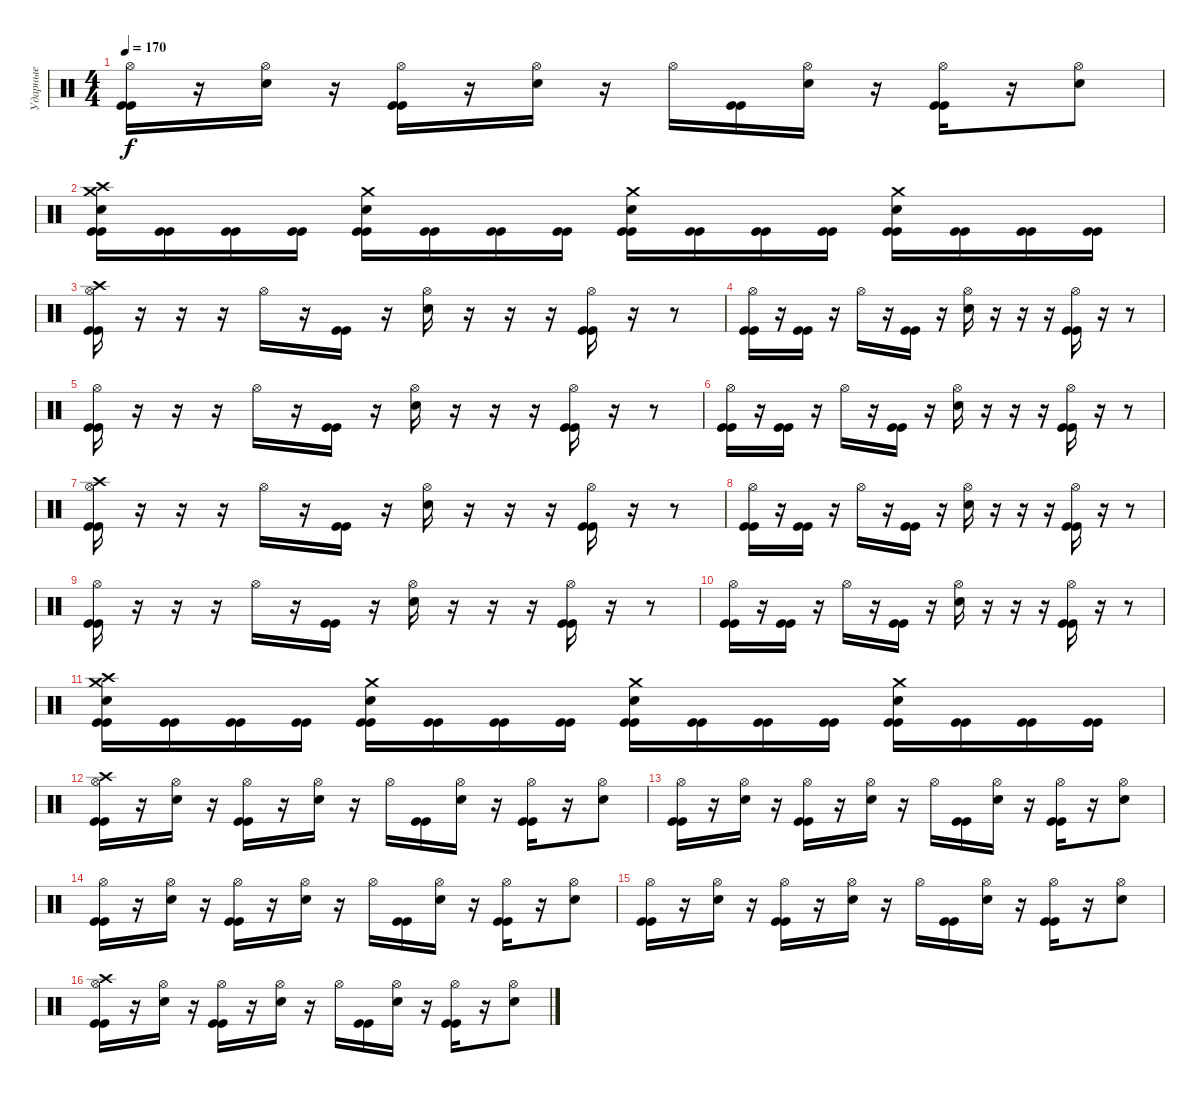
\track ("Ударные" "Ударные") {instrument percussion}
\staff {score}
\articulation defaults
\ts (4 4)
\tempo 170
\clef neutral
\ks c
("Hi-Hat (open)" "Kick (hit)" "Kick (hit)").16{dy f} r.16 ("Hi-Hat (open)" "Electric Snare (hit)").16 r.16 ("Hi-Hat (open)" "Kick (hit)" "Kick (hit)").16 r.16 ("Hi-Hat (open)" "Electric Snare (hit)").16 r.16 "Hi-Hat (open)".16 ("Kick (hit)" "Kick (hit)").16 ("Hi-Hat (open)" "Electric Snare (hit)").16 r.16 ("Hi-Hat (open)" "Kick (hit)" "Kick (hit)").16 r.16 ("Hi-Hat (open)" "Electric Snare (hit)").8 |
("Crash high (hit)" "Crash medium (hit)" "Electric Snare (hit)" "Kick (hit)" "Kick (hit)").16 ("Kick (hit)" "Kick (hit)").16 ("Kick (hit)" "Kick (hit)").16 ("Kick (hit)" "Kick (hit)").16 ("Crash medium (hit)" "Electric Snare (hit)" "Kick (hit)" "Kick (hit)").16 ("Kick (hit)" "Kick (hit)").16 ("Kick (hit)" "Kick (hit)").16 ("Kick (hit)" "Kick (hit)").16 ("Crash medium (hit)" "Electric Snare (hit)" "Kick (hit)" "Kick (hit)").16 ("Kick (hit)" "Kick (hit)").16 ("Kick (hit)" "Kick (hit)").16 ("Kick (hit)" "Kick (hit)").16 ("Crash medium (hit)" "Electric Snare (hit)" "Kick (hit)" "Kick (hit)").16 ("Kick (hit)" "Kick (hit)").16 ("Kick (hit)" "Kick (hit)").16 ("Kick (hit)" "Kick (hit)").16 |
("Crash high (hit)" "Hi-Hat (open)" "Kick (hit)" "Kick (hit)").16 r.16 r.16 r.16 "Hi-Hat (open)".16 r.16 ("Kick (hit)" "Kick (hit)").16 r.16 ("Hi-Hat (open)" "Electric Snare (hit)").16 r.16 r.16 r.16 ("Hi-Hat (open)" "Kick (hit)" "Kick (hit)").16 r.16 r.8 |
("Hi-Hat (open)" "Kick (hit)" "Kick (hit)").16 r.16 ("Kick (hit)" "Kick (hit)").16 r.16 "Hi-Hat (open)".16 r.16 ("Kick (hit)" "Kick (hit)").16 r.16 ("Hi-Hat (open)" "Electric Snare (hit)").16 r.16 r.16 r.16 ("Hi-Hat (open)" "Kick (hit)" "Kick (hit)").16 r.16 r.8 |
("Hi-Hat (open)" "Kick (hit)" "Kick (hit)").16 r.16 r.16 r.16 "Hi-Hat (open)".16 r.16 ("Kick (hit)" "Kick (hit)").16 r.16 ("Hi-Hat (open)" "Electric Snare (hit)").16 r.16 r.16 r.16 ("Hi-Hat (open)" "Kick (hit)" "Kick (hit)").16 r.16 r.8 |
("Hi-Hat (open)" "Kick (hit)" "Kick (hit)").16 r.16 ("Kick (hit)" "Kick (hit)").16 r.16 "Hi-Hat (open)".16 r.16 ("Kick (hit)" "Kick (hit)").16 r.16 ("Hi-Hat (open)" "Electric Snare (hit)").16 r.16 r.16 r.16 ("Hi-Hat (open)" "Kick (hit)" "Kick (hit)").16 r.16 r.8 |
("Crash high (hit)" "Hi-Hat (open)" "Kick (hit)" "Kick (hit)").16 r.16 r.16 r.16 "Hi-Hat (open)".16 r.16 ("Kick (hit)" "Kick (hit)").16 r.16 ("Hi-Hat (open)" "Electric Snare (hit)").16 r.16 r.16 r.16 ("Hi-Hat (open)" "Kick (hit)" "Kick (hit)").16 r.16 r.8 |
("Hi-Hat (open)" "Kick (hit)" "Kick (hit)").16 r.16 ("Kick (hit)" "Kick (hit)").16 r.16 "Hi-Hat (open)".16 r.16 ("Kick (hit)" "Kick (hit)").16 r.16 ("Hi-Hat (open)" "Electric Snare (hit)").16 r.16 r.16 r.16 ("Hi-Hat (open)" "Kick (hit)" "Kick (hit)").16 r.16 r.8 |
("Hi-Hat (open)" "Kick (hit)" "Kick (hit)").16 r.16 r.16 r.16 "Hi-Hat (open)".16 r.16 ("Kick (hit)" "Kick (hit)").16 r.16 ("Hi-Hat (open)" "Electric Snare (hit)").16 r.16 r.16 r.16 ("Hi-Hat (open)" "Kick (hit)" "Kick (hit)").16 r.16 r.8 |
("Hi-Hat (open)" "Kick (hit)" "Kick (hit)").16 r.16 ("Kick (hit)" "Kick (hit)").16 r.16 "Hi-Hat (open)".16 r.16 ("Kick (hit)" "Kick (hit)").16 r.16 ("Hi-Hat (open)" "Electric Snare (hit)").16 r.16 r.16 r.16 ("Hi-Hat (open)" "Kick (hit)" "Kick (hit)").16 r.16 r.8 |
("Crash high (hit)" "Crash medium (hit)" "Electric Snare (hit)" "Kick (hit)" "Kick (hit)").16 ("Kick (hit)" "Kick (hit)").16 ("Kick (hit)" "Kick (hit)").16 ("Kick (hit)" "Kick (hit)").16 ("Crash medium (hit)" "Electric Snare (hit)" "Kick (hit)" "Kick (hit)").16 ("Kick (hit)" "Kick (hit)").16 ("Kick (hit)" "Kick (hit)").16 ("Kick (hit)" "Kick (hit)").16 ("Crash medium (hit)" "Electric Snare (hit)" "Kick (hit)" "Kick (hit)").16 ("Kick (hit)" "Kick (hit)").16 ("Kick (hit)" "Kick (hit)").16 ("Kick (hit)" "Kick (hit)").16 ("Crash medium (hit)" "Electric Snare (hit)" "Kick (hit)" "Kick (hit)").16 ("Kick (hit)" "Kick (hit)").16 ("Kick (hit)" "Kick (hit)").16 ("Kick (hit)" "Kick (hit)").16 |
("Crash high (hit)" "Hi-Hat (open)" "Kick (hit)" "Kick (hit)").16 r.16 ("Hi-Hat (open)" "Electric Snare (hit)").16 r.16 ("Hi-Hat (open)" "Kick (hit)" "Kick (hit)").16 r.16 ("Hi-Hat (open)" "Electric Snare (hit)").16 r.16 "Hi-Hat (open)".16 ("Kick (hit)" "Kick (hit)").16 ("Hi-Hat (open)" "Electric Snare (hit)").16 r.16 ("Hi-Hat (open)" "Kick (hit)" "Kick (hit)").16 r.16 ("Hi-Hat (open)" "Electric Snare (hit)").8 |
("Hi-Hat (open)" "Kick (hit)" "Kick (hit)").16 r.16 ("Hi-Hat (open)" "Electric Snare (hit)").16 r.16 ("Hi-Hat (open)" "Kick (hit)" "Kick (hit)").16 r.16 ("Hi-Hat (open)" "Electric Snare (hit)").16 r.16 "Hi-Hat (open)".16 ("Kick (hit)" "Kick (hit)").16 ("Hi-Hat (open)" "Electric Snare (hit)").16 r.16 ("Hi-Hat (open)" "Kick (hit)" "Kick (hit)").16 r.16 ("Hi-Hat (open)" "Electric Snare (hit)").8 |
("Hi-Hat (open)" "Kick (hit)" "Kick (hit)").16 r.16 ("Hi-Hat (open)" "Electric Snare (hit)").16 r.16 ("Hi-Hat (open)" "Kick (hit)" "Kick (hit)").16 r.16 ("Hi-Hat (open)" "Electric Snare (hit)").16 r.16 "Hi-Hat (open)".16 ("Kick (hit)" "Kick (hit)").16 ("Hi-Hat (open)" "Electric Snare (hit)").16 r.16 ("Hi-Hat (open)" "Kick (hit)" "Kick (hit)").16 r.16 ("Hi-Hat (open)" "Electric Snare (hit)").8 |
("Hi-Hat (open)" "Kick (hit)" "Kick (hit)").16 r.16 ("Hi-Hat (open)" "Electric Snare (hit)").16 r.16 ("Hi-Hat (open)" "Kick (hit)" "Kick (hit)").16 r.16 ("Hi-Hat (open)" "Electric Snare (hit)").16 r.16 "Hi-Hat (open)".16 ("Kick (hit)" "Kick (hit)").16 ("Hi-Hat (open)" "Electric Snare (hit)").16 r.16 ("Hi-Hat (open)" "Kick (hit)" "Kick (hit)").16 r.16 ("Hi-Hat (open)" "Electric Snare (hit)").8 |
("Crash high (hit)" "Hi-Hat (open)" "Kick (hit)" "Kick (hit)").16 r.16 ("Hi-Hat (open)" "Electric Snare (hit)").16 r.16 ("Hi-Hat (open)" "Kick (hit)" "Kick (hit)").16 r.16 ("Hi-Hat (open)" "Electric Snare (hit)").16 r.16 "Hi-Hat (open)".16 ("Kick (hit)" "Kick (hit)").16 ("Hi-Hat (open)" "Electric Snare (hit)").16 r.16 ("Hi-Hat (open)" "Kick (hit)" "Kick (hit)").16 r.16 ("Hi-Hat (open)" "Electric Snare (hit)").8
